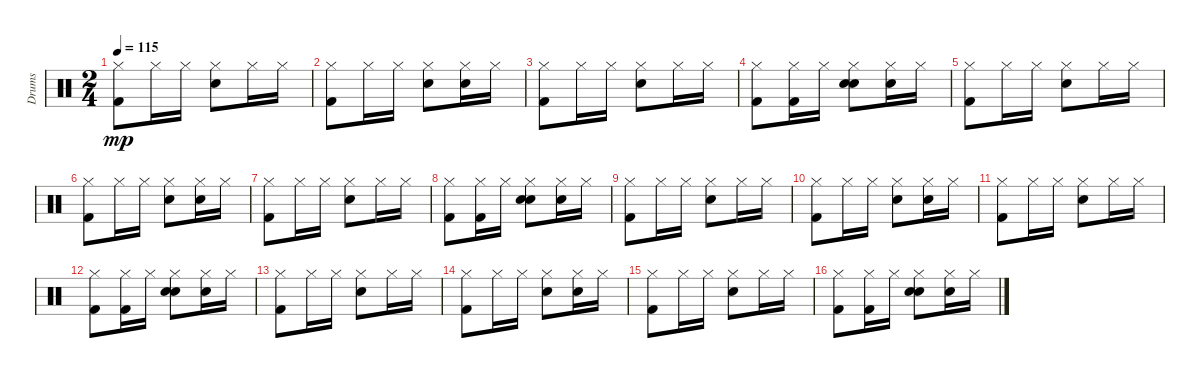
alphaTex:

\track ("Drums" "Drums") {instrument percussion}
\staff {score}
\articulation defaults
\ts (2 4)
\tempo 115
\clef neutral
\ks c
("Hi-Hat (closed)" "Kick (hit) 2").8{dy mp} "Hi-Hat (closed)".16 "Hi-Hat (closed)".16 ("Hi-Hat (closed)" "Electric Snare (hit)").8 "Hi-Hat (closed)".16 "Hi-Hat (closed)".16 |
("Hi-Hat (closed)" "Kick (hit) 2").8 "Hi-Hat (closed)".16 "Hi-Hat (closed)".16 ("Hi-Hat (closed)" "Electric Snare (hit)").8 ("Hi-Hat (closed)" "Hand Clap (hit)").16 "Hi-Hat (closed)".16 |
("Hi-Hat (closed)" "Kick (hit) 2").8 "Hi-Hat (closed)".16 "Hi-Hat (closed)".16 ("Hi-Hat (closed)" "Electric Snare (hit)").8 "Hi-Hat (closed)".16 "Hi-Hat (closed)".16 |
("Hi-Hat (closed)" "Kick (hit) 2").8 ("Hi-Hat (closed)" "Kick (hit) 2").16 "Hi-Hat (closed)".16 ("Hi-Hat (closed)" "Hand Clap (hit)" "Electric Snare (hit)").8 ("Hi-Hat (closed)" "Hand Clap (hit)").16 "Hi-Hat (closed)".16 |
("Hi-Hat (closed)" "Kick (hit) 2").8 "Hi-Hat (closed)".16 "Hi-Hat (closed)".16 ("Hi-Hat (closed)" "Electric Snare (hit)").8 "Hi-Hat (closed)".16 "Hi-Hat (closed)".16 |
("Hi-Hat (closed)" "Kick (hit) 2").8 "Hi-Hat (closed)".16 "Hi-Hat (closed)".16 ("Hi-Hat (closed)" "Electric Snare (hit)").8 ("Hi-Hat (closed)" "Hand Clap (hit)").16 "Hi-Hat (closed)".16 |
("Hi-Hat (closed)" "Kick (hit) 2").8 "Hi-Hat (closed)".16 "Hi-Hat (closed)".16 ("Hi-Hat (closed)" "Electric Snare (hit)").8 "Hi-Hat (closed)".16 "Hi-Hat (closed)".16 |
("Hi-Hat (closed)" "Kick (hit) 2").8 ("Hi-Hat (closed)" "Kick (hit) 2").16 "Hi-Hat (closed)".16 ("Hi-Hat (closed)" "Hand Clap (hit)" "Electric Snare (hit)").8 ("Hi-Hat (closed)" "Hand Clap (hit)").16 "Hi-Hat (closed)".16 |
("Hi-Hat (closed)" "Kick (hit) 2").8 "Hi-Hat (closed)".16 "Hi-Hat (closed)".16 ("Hi-Hat (closed)" "Electric Snare (hit)").8 "Hi-Hat (closed)".16 "Hi-Hat (closed)".16 |
("Hi-Hat (closed)" "Kick (hit) 2").8 "Hi-Hat (closed)".16 "Hi-Hat (closed)".16 ("Hi-Hat (closed)" "Electric Snare (hit)").8 ("Hi-Hat (closed)" "Hand Clap (hit)").16 "Hi-Hat (closed)".16 |
("Hi-Hat (closed)" "Kick (hit) 2").8 "Hi-Hat (closed)".16 "Hi-Hat (closed)".16 ("Hi-Hat (closed)" "Electric Snare (hit)").8 "Hi-Hat (closed)".16 "Hi-Hat (closed)".16 |
("Hi-Hat (closed)" "Kick (hit) 2").8 ("Hi-Hat (closed)" "Kick (hit) 2").16 "Hi-Hat (closed)".16 ("Hi-Hat (closed)" "Hand Clap (hit)" "Electric Snare (hit)").8 ("Hi-Hat (closed)" "Hand Clap (hit)").16 "Hi-Hat (closed)".16 |
("Hi-Hat (closed)" "Kick (hit) 2").8 "Hi-Hat (closed)".16 "Hi-Hat (closed)".16 ("Hi-Hat (closed)" "Electric Snare (hit)").8 "Hi-Hat (closed)".16 "Hi-Hat (closed)".16 |
("Hi-Hat (closed)" "Kick (hit) 2").8 "Hi-Hat (closed)".16 "Hi-Hat (closed)".16 ("Hi-Hat (closed)" "Electric Snare (hit)").8 ("Hi-Hat (closed)" "Hand Clap (hit)").16 "Hi-Hat (closed)".16 |
("Hi-Hat (closed)" "Kick (hit) 2").8 "Hi-Hat (closed)".16 "Hi-Hat (closed)".16 ("Hi-Hat (closed)" "Electric Snare (hit)").8 "Hi-Hat (closed)".16 "Hi-Hat (closed)".16 |
("Hi-Hat (closed)" "Kick (hit) 2").8 ("Hi-Hat (closed)" "Kick (hit) 2").16 "Hi-Hat (closed)".16 ("Hi-Hat (closed)" "Hand Clap (hit)" "Electric Snare (hit)").8 ("Hi-Hat (closed)" "Hand Clap (hit)").16 "Hi-Hat (closed)".16
